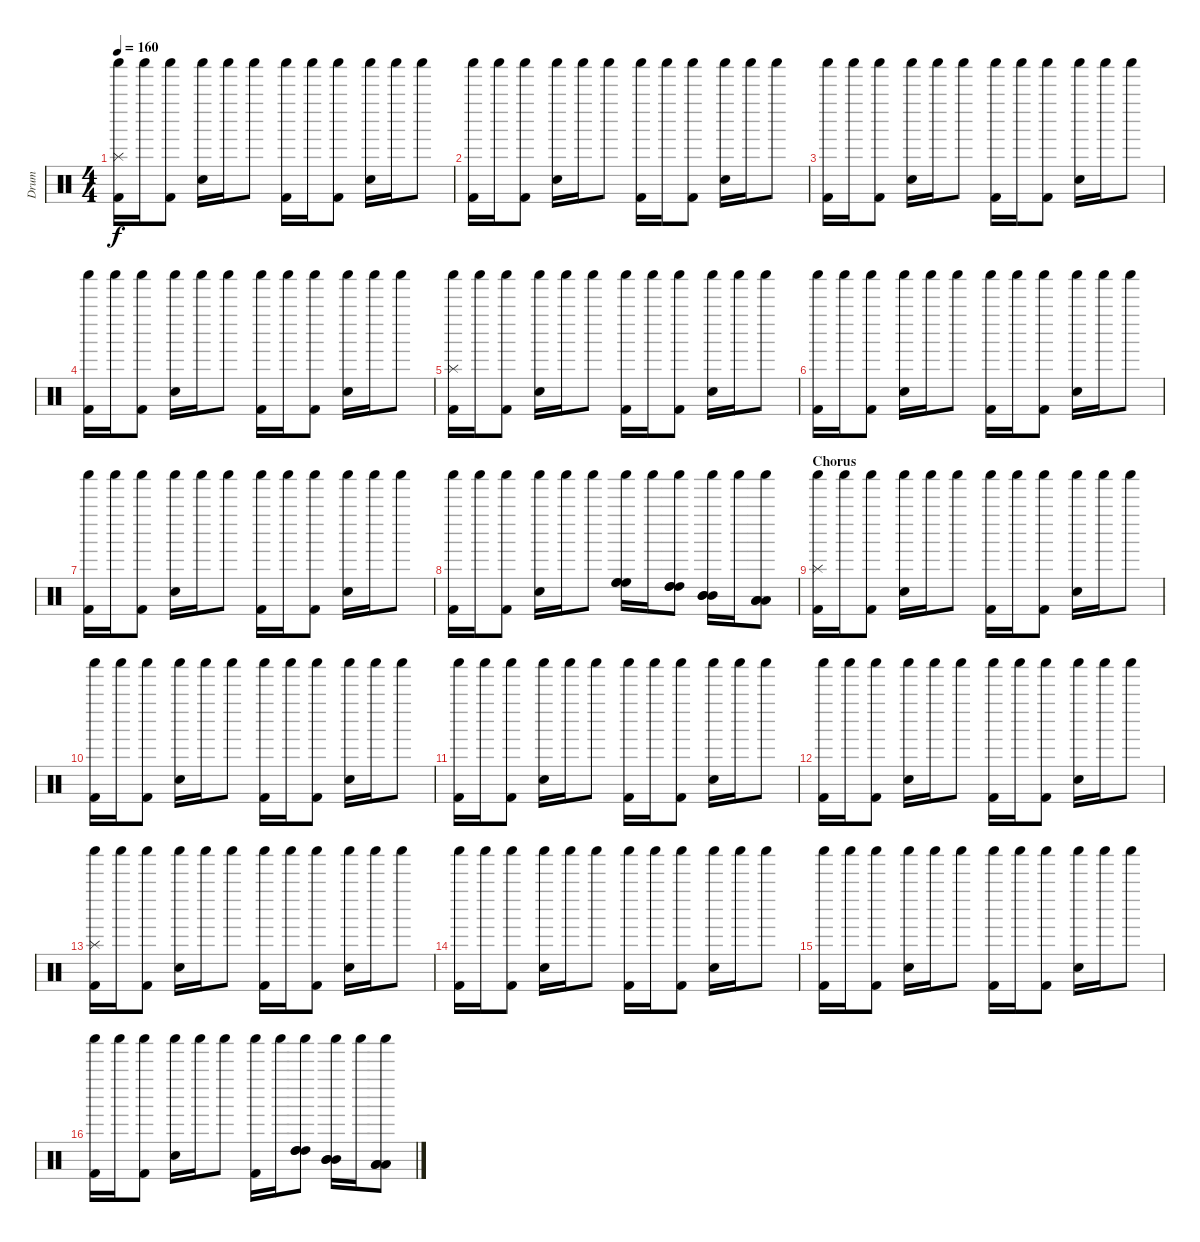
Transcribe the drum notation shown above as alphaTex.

\track ("Drum" "Drum") {instrument percussion}
\staff {score}
\articulation defaults
\ts (4 4)
\tempo 160
\clef neutral
\ks c
("Splash (hit)" "Shaker (hit)" "Kick (hit) 2").16{dy f} "Shaker (hit)".16 ("Shaker (hit)" "Kick (hit) 2").8 ("Shaker (hit)" "Snare (hit) 2").16 "Shaker (hit)".16 "Shaker (hit)".8 ("Shaker (hit)" "Kick (hit) 2").16 "Shaker (hit)".16 ("Shaker (hit)" "Kick (hit) 2").8 ("Shaker (hit)" "Snare (hit) 2").16 "Shaker (hit)".16 "Shaker (hit)".8 |
("Shaker (hit)" "Kick (hit) 2").16 "Shaker (hit)".16 ("Shaker (hit)" "Kick (hit) 2").8 ("Shaker (hit)" "Snare (hit) 2").16 "Shaker (hit)".16 "Shaker (hit)".8 ("Shaker (hit)" "Kick (hit) 2").16 "Shaker (hit)".16 ("Shaker (hit)" "Kick (hit) 2").8 ("Shaker (hit)" "Snare (hit) 2").16 "Shaker (hit)".16 "Shaker (hit)".8 |
("Shaker (hit)" "Kick (hit) 2").16 "Shaker (hit)".16 ("Shaker (hit)" "Kick (hit) 2").8 ("Shaker (hit)" "Snare (hit) 2").16 "Shaker (hit)".16 "Shaker (hit)".8 ("Shaker (hit)" "Kick (hit) 2").16 "Shaker (hit)".16 ("Shaker (hit)" "Kick (hit) 2").8 ("Shaker (hit)" "Snare (hit) 2").16 "Shaker (hit)".16 "Shaker (hit)".8 |
("Shaker (hit)" "Kick (hit) 2").16 "Shaker (hit)".16 ("Shaker (hit)" "Kick (hit) 2").8 ("Shaker (hit)" "Snare (hit) 2").16 "Shaker (hit)".16 "Shaker (hit)".8 ("Shaker (hit)" "Kick (hit) 2").16 "Shaker (hit)".16 ("Shaker (hit)" "Kick (hit) 2").8 ("Shaker (hit)" "Snare (hit) 2").16 "Shaker (hit)".16 "Shaker (hit)".8 |
("Splash (hit)" "Shaker (hit)" "Kick (hit) 2").16 "Shaker (hit)".16 ("Shaker (hit)" "Kick (hit) 2").8 ("Shaker (hit)" "Snare (hit) 2").16 "Shaker (hit)".16 "Shaker (hit)".8 ("Shaker (hit)" "Kick (hit) 2").16 "Shaker (hit)".16 ("Shaker (hit)" "Kick (hit) 2").8 ("Shaker (hit)" "Snare (hit) 2").16 "Shaker (hit)".16 "Shaker (hit)".8 |
("Shaker (hit)" "Kick (hit) 2").16 "Shaker (hit)".16 ("Shaker (hit)" "Kick (hit) 2").8 ("Shaker (hit)" "Snare (hit) 2").16 "Shaker (hit)".16 "Shaker (hit)".8 ("Shaker (hit)" "Kick (hit) 2").16 "Shaker (hit)".16 ("Shaker (hit)" "Kick (hit) 2").8 ("Shaker (hit)" "Snare (hit) 2").16 "Shaker (hit)".16 "Shaker (hit)".8 |
("Shaker (hit)" "Kick (hit) 2").16 "Shaker (hit)".16 ("Shaker (hit)" "Kick (hit) 2").8 ("Shaker (hit)" "Snare (hit) 2").16 "Shaker (hit)".16 "Shaker (hit)".8 ("Shaker (hit)" "Kick (hit) 2").16 "Shaker (hit)".16 ("Shaker (hit)" "Kick (hit) 2").8 ("Shaker (hit)" "Snare (hit) 2").16 "Shaker (hit)".16 "Shaker (hit)".8 |
("Shaker (hit)" "Kick (hit) 2").16 "Shaker (hit)".16 ("Shaker (hit)" "Kick (hit) 2").8 ("Shaker (hit)" "Snare (hit) 2").16 "Shaker (hit)".16 "Shaker (hit)".8 ("High Floor Tom (hit)" "High Floor Tom (hit)" "High Floor Tom (hit)" "Shaker (hit)").16 "Shaker (hit)".16 ("High Tom (hit)" "High Tom (hit)" "High Tom (hit)" "Shaker (hit)").8 ("Mid Tom (hit)" "Mid Tom (hit)" "Mid Tom (hit)" "Shaker (hit)").16 "Shaker (hit)".16 ("Low Tom (hit)" "Low Tom (hit)" "Low Tom (hit)" "Shaker (hit)").8 |
\section ("" "Chorus")
("Splash (hit)" "Shaker (hit)" "Kick (hit) 2").16 "Shaker (hit)".16 ("Shaker (hit)" "Kick (hit) 2").8 ("Shaker (hit)" "Snare (hit) 2").16 "Shaker (hit)".16 "Shaker (hit)".8 ("Shaker (hit)" "Kick (hit) 2").16 "Shaker (hit)".16 ("Shaker (hit)" "Kick (hit) 2").8 ("Shaker (hit)" "Snare (hit) 2").16 "Shaker (hit)".16 "Shaker (hit)".8 |
("Shaker (hit)" "Kick (hit) 2").16 "Shaker (hit)".16 ("Shaker (hit)" "Kick (hit) 2").8 ("Shaker (hit)" "Snare (hit) 2").16 "Shaker (hit)".16 "Shaker (hit)".8 ("Shaker (hit)" "Kick (hit) 2").16 "Shaker (hit)".16 ("Shaker (hit)" "Kick (hit) 2").8 ("Shaker (hit)" "Snare (hit) 2").16 "Shaker (hit)".16 "Shaker (hit)".8 |
("Shaker (hit)" "Kick (hit) 2").16 "Shaker (hit)".16 ("Shaker (hit)" "Kick (hit) 2").8 ("Shaker (hit)" "Snare (hit) 2").16 "Shaker (hit)".16 "Shaker (hit)".8 ("Shaker (hit)" "Kick (hit) 2").16 "Shaker (hit)".16 ("Shaker (hit)" "Kick (hit) 2").8 ("Shaker (hit)" "Snare (hit) 2").16 "Shaker (hit)".16 "Shaker (hit)".8 |
("Shaker (hit)" "Kick (hit) 2").16 "Shaker (hit)".16 ("Shaker (hit)" "Kick (hit) 2").8 ("Shaker (hit)" "Snare (hit) 2").16 "Shaker (hit)".16 "Shaker (hit)".8 ("Shaker (hit)" "Kick (hit) 2").16 "Shaker (hit)".16 ("Shaker (hit)" "Kick (hit) 2").8 ("Shaker (hit)" "Snare (hit) 2").16 "Shaker (hit)".16 "Shaker (hit)".8 |
("Splash (hit)" "Shaker (hit)" "Kick (hit) 2").16 "Shaker (hit)".16 ("Shaker (hit)" "Kick (hit) 2").8 ("Shaker (hit)" "Snare (hit) 2").16 "Shaker (hit)".16 "Shaker (hit)".8 ("Shaker (hit)" "Kick (hit) 2").16 "Shaker (hit)".16 ("Shaker (hit)" "Kick (hit) 2").8 ("Shaker (hit)" "Snare (hit) 2").16 "Shaker (hit)".16 "Shaker (hit)".8 |
("Shaker (hit)" "Kick (hit) 2").16 "Shaker (hit)".16 ("Shaker (hit)" "Kick (hit) 2").8 ("Shaker (hit)" "Snare (hit) 2").16 "Shaker (hit)".16 "Shaker (hit)".8 ("Shaker (hit)" "Kick (hit) 2").16 "Shaker (hit)".16 ("Shaker (hit)" "Kick (hit) 2").8 ("Shaker (hit)" "Snare (hit) 2").16 "Shaker (hit)".16 "Shaker (hit)".8 |
("Shaker (hit)" "Kick (hit) 2").16 "Shaker (hit)".16 ("Shaker (hit)" "Kick (hit) 2").8 ("Shaker (hit)" "Snare (hit) 2").16 "Shaker (hit)".16 "Shaker (hit)".8 ("Shaker (hit)" "Kick (hit) 2").16 "Shaker (hit)".16 ("Shaker (hit)" "Kick (hit) 2").8 ("Shaker (hit)" "Snare (hit) 2").16 "Shaker (hit)".16 "Shaker (hit)".8 |
("Shaker (hit)" "Kick (hit) 2").16 "Shaker (hit)".16 ("Shaker (hit)" "Kick (hit) 2").8 ("Shaker (hit)" "Snare (hit) 2").16 "Shaker (hit)".16 "Shaker (hit)".8 ("Shaker (hit)" "Kick (hit) 2").16 "Shaker (hit)".16 ("High Tom (hit)" "High Tom (hit)" "High Tom (hit)" "Shaker (hit)").8 ("Mid Tom (hit)" "Mid Tom (hit)" "Mid Tom (hit)" "Shaker (hit)").16 "Shaker (hit)".16 ("Low Tom (hit)" "Low Tom (hit)" "Low Tom (hit)" "Shaker (hit)").8
